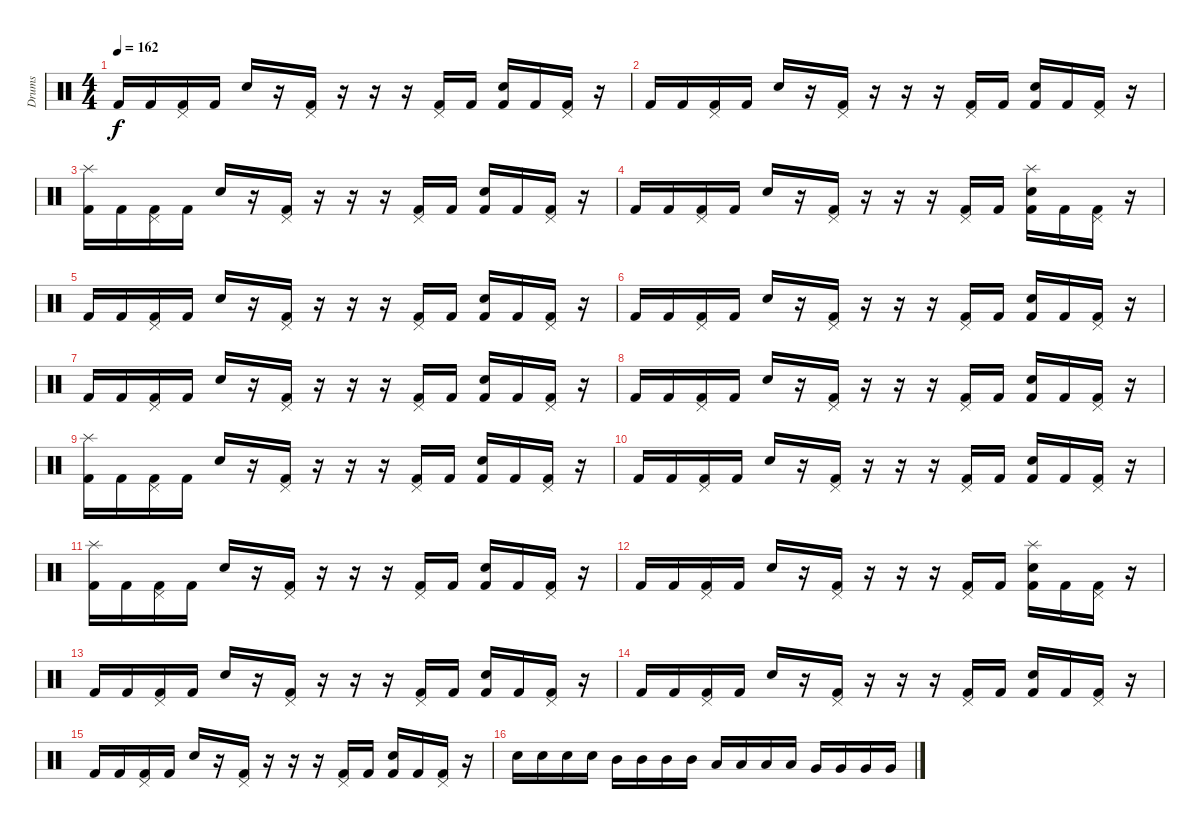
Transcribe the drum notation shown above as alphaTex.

\track ("Drums" "Drums") {instrument percussion}
\staff {score}
\articulation defaults
\ts (4 4)
\tempo 162
\clef neutral
\ks c "Kick (hit) 2".16{dy f} "Kick (hit) 2".16
("Pedal Hi-Hat (hit)" "Kick (hit) 2").16 "Kick (hit) 2".16 "Electric Snare (hit)".16 r.16 ("Pedal Hi-Hat (hit)" "Kick (hit) 2").16 r.16 r.16 r.16 ("Pedal Hi-Hat (hit)" "Kick (hit) 2").16 "Kick (hit) 2".16 ("Electric Snare (hit)" "Kick (hit) 2").16 "Kick (hit) 2".16 ("Pedal Hi-Hat (hit)" "Kick (hit) 2").16 r.16 |
"Kick (hit) 2".16 "Kick (hit) 2".16 ("Pedal Hi-Hat (hit)" "Kick (hit) 2").16 "Kick (hit) 2".16 "Electric Snare (hit)".16 r.16 ("Pedal Hi-Hat (hit)" "Kick (hit) 2").16 r.16 r.16 r.16 ("Pedal Hi-Hat (hit)" "Kick (hit) 2").16 "Kick (hit) 2".16 ("Electric Snare (hit)" "Kick (hit) 2").16 "Kick (hit) 2".16 ("Pedal Hi-Hat (hit)" "Kick (hit) 2").16 r.16 |
("Splash (hit)" "Kick (hit) 2").16 "Kick (hit) 2".16 ("Pedal Hi-Hat (hit)" "Kick (hit) 2").16 "Kick (hit) 2".16 "Electric Snare (hit)".16 r.16 ("Pedal Hi-Hat (hit)" "Kick (hit) 2").16 r.16 r.16 r.16 ("Pedal Hi-Hat (hit)" "Kick (hit) 2").16 "Kick (hit) 2".16 ("Electric Snare (hit)" "Kick (hit) 2").16 "Kick (hit) 2".16 ("Pedal Hi-Hat (hit)" "Kick (hit) 2").16 r.16 |
"Kick (hit) 2".16 "Kick (hit) 2".16 ("Pedal Hi-Hat (hit)" "Kick (hit) 2").16 "Kick (hit) 2".16 "Electric Snare (hit)".16 r.16 ("Pedal Hi-Hat (hit)" "Kick (hit) 2").16 r.16 r.16 r.16 ("Pedal Hi-Hat (hit)" "Kick (hit) 2").16 "Kick (hit) 2".16 ("Splash (hit)" "Electric Snare (hit)" "Kick (hit) 2").16 "Kick (hit) 2".16 ("Pedal Hi-Hat (hit)" "Kick (hit) 2").16 r.16 |
"Kick (hit) 2".16 "Kick (hit) 2".16 ("Pedal Hi-Hat (hit)" "Kick (hit) 2").16 "Kick (hit) 2".16 "Electric Snare (hit)".16 r.16 ("Pedal Hi-Hat (hit)" "Kick (hit) 2").16 r.16 r.16 r.16 ("Pedal Hi-Hat (hit)" "Kick (hit) 2").16 "Kick (hit) 2".16 ("Electric Snare (hit)" "Kick (hit) 2").16 "Kick (hit) 2".16 ("Pedal Hi-Hat (hit)" "Kick (hit) 2").16 r.16 |
"Kick (hit) 2".16 "Kick (hit) 2".16 ("Pedal Hi-Hat (hit)" "Kick (hit) 2").16 "Kick (hit) 2".16 "Electric Snare (hit)".16 r.16 ("Pedal Hi-Hat (hit)" "Kick (hit) 2").16 r.16 r.16 r.16 ("Pedal Hi-Hat (hit)" "Kick (hit) 2").16 "Kick (hit) 2".16 ("Electric Snare (hit)" "Kick (hit) 2").16 "Kick (hit) 2".16 ("Pedal Hi-Hat (hit)" "Kick (hit) 2").16 r.16 |
"Kick (hit) 2".16 "Kick (hit) 2".16 ("Pedal Hi-Hat (hit)" "Kick (hit) 2").16 "Kick (hit) 2".16 "Electric Snare (hit)".16 r.16 ("Pedal Hi-Hat (hit)" "Kick (hit) 2").16 r.16 r.16 r.16 ("Pedal Hi-Hat (hit)" "Kick (hit) 2").16 "Kick (hit) 2".16 ("Electric Snare (hit)" "Kick (hit) 2").16 "Kick (hit) 2".16 ("Pedal Hi-Hat (hit)" "Kick (hit) 2").16 r.16 |
"Kick (hit) 2".16 "Kick (hit) 2".16 ("Pedal Hi-Hat (hit)" "Kick (hit) 2").16 "Kick (hit) 2".16 "Electric Snare (hit)".16 r.16 ("Pedal Hi-Hat (hit)" "Kick (hit) 2").16 r.16 r.16 r.16 ("Pedal Hi-Hat (hit)" "Kick (hit) 2").16 "Kick (hit) 2".16 ("Electric Snare (hit)" "Kick (hit) 2").16 "Kick (hit) 2".16 ("Pedal Hi-Hat (hit)" "Kick (hit) 2").16 r.16 |
("Splash (hit)" "Kick (hit) 2").16 "Kick (hit) 2".16 ("Pedal Hi-Hat (hit)" "Kick (hit) 2").16 "Kick (hit) 2".16 "Electric Snare (hit)".16 r.16 ("Pedal Hi-Hat (hit)" "Kick (hit) 2").16 r.16 r.16 r.16 ("Pedal Hi-Hat (hit)" "Kick (hit) 2").16 "Kick (hit) 2".16 ("Electric Snare (hit)" "Kick (hit) 2").16 "Kick (hit) 2".16 ("Pedal Hi-Hat (hit)" "Kick (hit) 2").16 r.16 |
"Kick (hit) 2".16 "Kick (hit) 2".16 ("Pedal Hi-Hat (hit)" "Kick (hit) 2").16 "Kick (hit) 2".16 "Electric Snare (hit)".16 r.16 ("Pedal Hi-Hat (hit)" "Kick (hit) 2").16 r.16 r.16 r.16 ("Pedal Hi-Hat (hit)" "Kick (hit) 2").16 "Kick (hit) 2".16 ("Electric Snare (hit)" "Kick (hit) 2").16 "Kick (hit) 2".16 ("Pedal Hi-Hat (hit)" "Kick (hit) 2").16 r.16 |
("Splash (hit)" "Kick (hit) 2").16 "Kick (hit) 2".16 ("Pedal Hi-Hat (hit)" "Kick (hit) 2").16 "Kick (hit) 2".16 "Electric Snare (hit)".16 r.16 ("Pedal Hi-Hat (hit)" "Kick (hit) 2").16 r.16 r.16 r.16 ("Pedal Hi-Hat (hit)" "Kick (hit) 2").16 "Kick (hit) 2".16 ("Electric Snare (hit)" "Kick (hit) 2").16 "Kick (hit) 2".16 ("Pedal Hi-Hat (hit)" "Kick (hit) 2").16 r.16 |
"Kick (hit) 2".16 "Kick (hit) 2".16 ("Pedal Hi-Hat (hit)" "Kick (hit) 2").16 "Kick (hit) 2".16 "Electric Snare (hit)".16 r.16 ("Pedal Hi-Hat (hit)" "Kick (hit) 2").16 r.16 r.16 r.16 ("Pedal Hi-Hat (hit)" "Kick (hit) 2").16 "Kick (hit) 2".16 ("Splash (hit)" "Electric Snare (hit)" "Kick (hit) 2").16 "Kick (hit) 2".16 ("Pedal Hi-Hat (hit)" "Kick (hit) 2").16 r.16 |
"Kick (hit) 2".16 "Kick (hit) 2".16 ("Pedal Hi-Hat (hit)" "Kick (hit) 2").16 "Kick (hit) 2".16 "Electric Snare (hit)".16 r.16 ("Pedal Hi-Hat (hit)" "Kick (hit) 2").16 r.16 r.16 r.16 ("Pedal Hi-Hat (hit)" "Kick (hit) 2").16 "Kick (hit) 2".16 ("Electric Snare (hit)" "Kick (hit) 2").16 "Kick (hit) 2".16 ("Pedal Hi-Hat (hit)" "Kick (hit) 2").16 r.16 |
"Kick (hit) 2".16 "Kick (hit) 2".16 ("Pedal Hi-Hat (hit)" "Kick (hit) 2").16 "Kick (hit) 2".16 "Electric Snare (hit)".16 r.16 ("Pedal Hi-Hat (hit)" "Kick (hit) 2").16 r.16 r.16 r.16 ("Pedal Hi-Hat (hit)" "Kick (hit) 2").16 "Kick (hit) 2".16 ("Electric Snare (hit)" "Kick (hit) 2").16 "Kick (hit) 2".16 ("Pedal Hi-Hat (hit)" "Kick (hit) 2").16 r.16 |
"Kick (hit) 2".16 "Kick (hit) 2".16 ("Pedal Hi-Hat (hit)" "Kick (hit) 2").16 "Kick (hit) 2".16 "Electric Snare (hit)".16 r.16 ("Pedal Hi-Hat (hit)" "Kick (hit) 2").16 r.16 r.16 r.16 ("Pedal Hi-Hat (hit)" "Kick (hit) 2").16 "Kick (hit) 2".16 ("Electric Snare (hit)" "Kick (hit) 2").16 "Kick (hit) 2".16 ("Pedal Hi-Hat (hit)" "Kick (hit) 2").16 r.16 |
"Electric Snare (hit)".16 "Electric Snare (hit)".16 "Electric Snare (hit)".16 "Electric Snare (hit)".16 "Mid Tom (hit)".16 "Mid Tom (hit)".16 "Mid Tom (hit)".16 "Mid Tom (hit)".16 "Low Tom (hit)".16 "Low Tom (hit)".16 "Low Tom (hit)".16 "Low Tom (hit)".16 "Very Low Tom (hit)".16 "Very Low Tom (hit)".16 "Very Low Tom (hit)".16 "Very Low Tom (hit)".16
